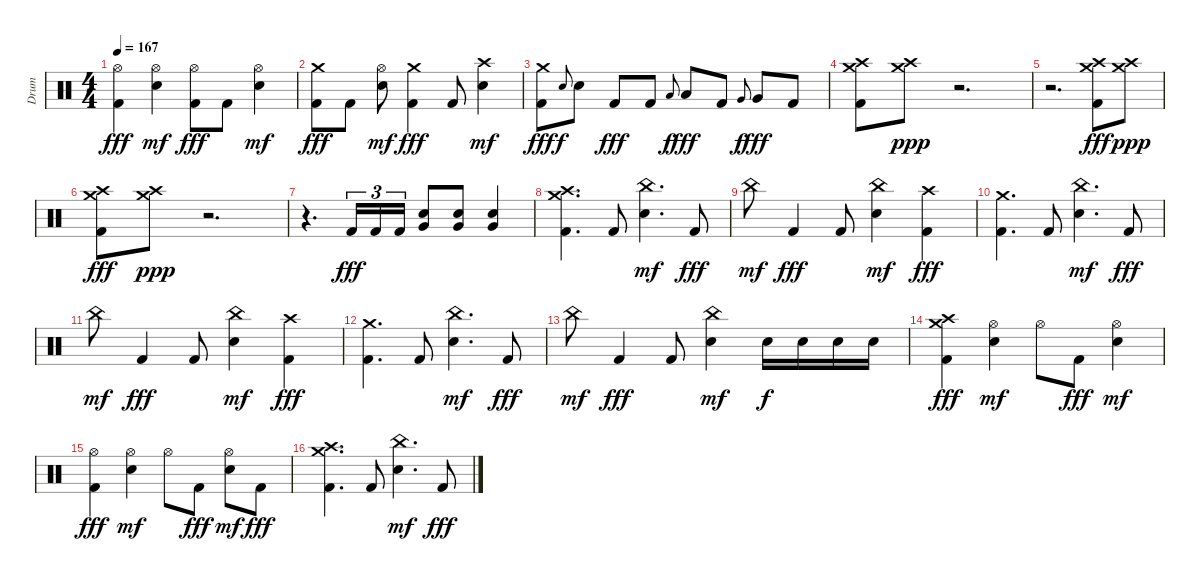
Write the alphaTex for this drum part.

\track ("Drum" "Drum") {instrument percussion}
\staff {score}
\articulation defaults
\ts (4 4)
\tempo 167
\clef neutral
\ks c
("Hi-Hat (open)" "Kick (hit) 2").4{dy fff} ("Hi-Hat (open)" "Electric Snare (hit)").4{dy mf} ("Hi-Hat (open)" "Kick (hit) 2").8{dy fff} "Kick (hit) 2".8 ("Hi-Hat (open)" "Electric Snare (hit)").4{dy mf} |
("Crash medium (hit)" "Kick (hit) 2").8{dy fff} "Kick (hit) 2".8 ("Hi-Hat (open)" "Electric Snare (hit)").8{dy mf} ("Crash medium (hit)" "Kick (hit) 2").4{dy fff} "Kick (hit) 2".8 ("Crash high (hit)" "Electric Snare (hit)").4{dy mf} |
("Crash medium (hit)" "Kick (hit) 2").8{dy fff} "Electric Snare (hit)".8{gr onbeat dy f} "Electric Snare (hit)".8 "Kick (hit) 2".8{dy fff} "Kick (hit) 2".8 "Low Tom (hit)".8{gr onbeat dy f} "Low Tom (hit)".8{dy fff} "Kick (hit) 2".8 "Very Low Tom (hit)".8{gr onbeat dy f} "Very Low Tom (hit)".8{dy fff} "Kick (hit) 2".8 |
("Crash high (hit)" "Crash medium (hit)" "Kick (hit) 2").8 ("Crash high (hit)" "Crash medium (hit)").8{dy ppp} r.2{d} |
r.2{d} ("Crash high (hit)" "Crash medium (hit)" "Kick (hit) 2").8{dy fff} ("Crash high (hit)" "Crash medium (hit)").8{dy ppp} |
("Crash high (hit)" "Crash medium (hit)" "Kick (hit) 2").8{dy fff} ("Crash high (hit)" "Crash medium (hit)").8{dy ppp} r.2{d} |
r.4{d} "Kick (hit) 2".16{tu (3 2) dy fff} "Kick (hit) 2".16{tu (3 2)} "Kick (hit) 2".16{tu (3 2)} ("Very Low Tom (hit)" "Electric Snare (hit)").8 ("Very Low Tom (hit)" "Electric Snare (hit)").8 ("Very Low Tom (hit)" "Electric Snare (hit)").4 |
("Crash medium (hit)" "Crash high (hit)" "Kick (hit) 2").4{d} "Kick (hit) 2".8 ("China (hit)" "Electric Snare (hit)").4{d dy mf} "Kick (hit) 2".8{dy fff} |
"China (hit)".8{dy mf} "Kick (hit) 2".4{dy fff} "Kick (hit) 2".8 ("China (hit)" "Electric Snare (hit)").4{dy mf} ("Crash high (hit)" "Kick (hit) 2").4{dy fff} |
("Crash medium (hit)" "Kick (hit) 2").4{d} "Kick (hit) 2".8 ("China (hit)" "Electric Snare (hit)").4{d dy mf} "Kick (hit) 2".8{dy fff} |
"China (hit)".8{dy mf} "Kick (hit) 2".4{dy fff} "Kick (hit) 2".8 ("China (hit)" "Electric Snare (hit)").4{dy mf} ("Crash high (hit)" "Kick (hit) 2").4{dy fff} |
("Crash medium (hit)" "Kick (hit) 2").4{d} "Kick (hit) 2".8 ("China (hit)" "Electric Snare (hit)").4{d dy mf} "Kick (hit) 2".8{dy fff} |
"China (hit)".8{dy mf} "Kick (hit) 2".4{dy fff} "Kick (hit) 2".8 ("China (hit)" "Electric Snare (hit)").4{dy mf} "Electric Snare (hit)".16{dy f} "Electric Snare (hit)".16 "Electric Snare (hit)".16 "Electric Snare (hit)".16 |
("Crash medium (hit)" "Crash high (hit)" "Kick (hit) 2").4{dy fff} ("Hi-Hat (open)" "Electric Snare (hit)").4{dy mf} "Hi-Hat (open)".8 "Kick (hit) 2".8{dy fff} ("Hi-Hat (open)" "Electric Snare (hit)").4{dy mf} |
("Hi-Hat (open)" "Kick (hit) 2").4{dy fff} ("Hi-Hat (open)" "Electric Snare (hit)").4{dy mf} "Hi-Hat (open)".8 "Kick (hit) 2".8{dy fff} ("Hi-Hat (open)" "Electric Snare (hit)").8{dy mf} "Kick (hit) 2".8{dy fff} |
("Crash medium (hit)" "Crash high (hit)" "Kick (hit) 2").4{d} "Kick (hit) 2".8 ("China (hit)" "Electric Snare (hit)").4{d dy mf} "Kick (hit) 2".8{dy fff}
